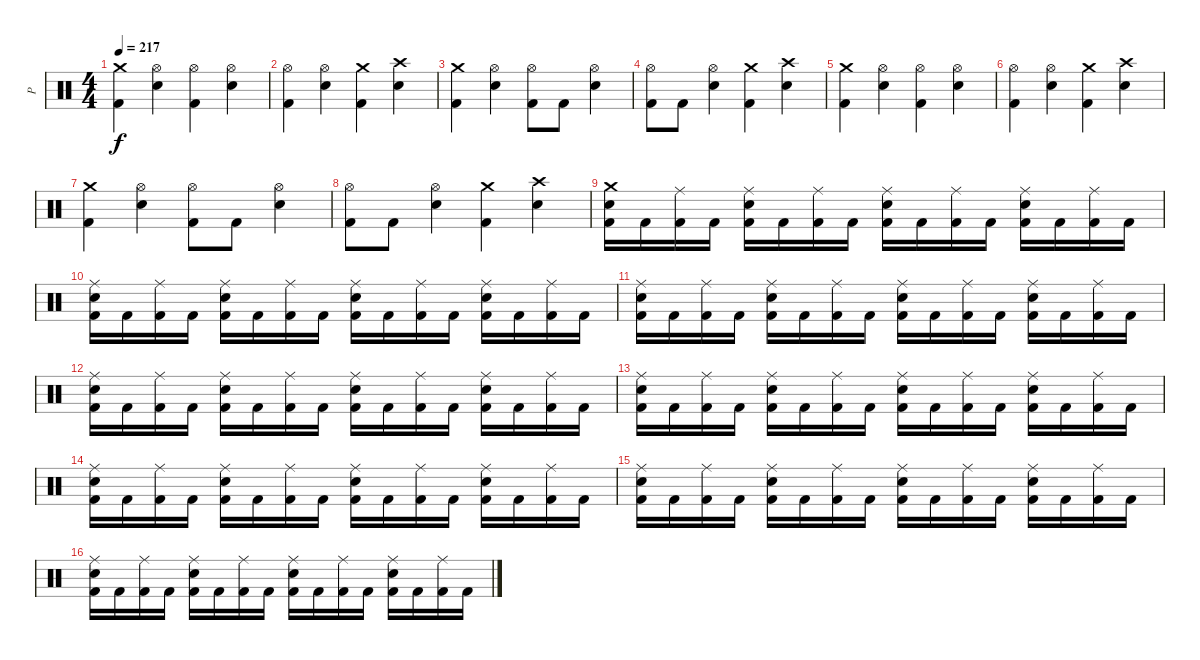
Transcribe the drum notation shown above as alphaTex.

\track ("P" "P") {instrument percussion}
\staff {score}
\articulation defaults
\ts (4 4)
\tempo 217
\clef neutral
\ks c
("Crash medium (hit)" "Kick (hit) 2").4{dy f} ("Hi-Hat (open)" "Electric Snare (hit)").4 ("Hi-Hat (open)" "Kick (hit) 2").4 ("Hi-Hat (open)" "Electric Snare (hit)").4 |
("Hi-Hat (open)" "Kick (hit) 2").4 ("Hi-Hat (open)" "Electric Snare (hit)").4 ("Crash medium (hit)" "Kick (hit) 2").4 ("Crash high (hit)" "Electric Snare (hit)").4 |
("Crash medium (hit)" "Kick (hit) 2").4 ("Hi-Hat (open)" "Electric Snare (hit)").4 ("Hi-Hat (open)" "Kick (hit) 2").8 "Kick (hit) 2".8 ("Hi-Hat (open)" "Electric Snare (hit)").4 |
("Hi-Hat (open)" "Kick (hit) 2").8 "Kick (hit) 2".8 ("Hi-Hat (open)" "Electric Snare (hit)").4 ("Crash medium (hit)" "Kick (hit) 2").4 ("Crash high (hit)" "Electric Snare (hit)").4 |
("Crash medium (hit)" "Kick (hit) 2").4 ("Hi-Hat (open)" "Electric Snare (hit)").4 ("Hi-Hat (open)" "Kick (hit) 2").4 ("Hi-Hat (open)" "Electric Snare (hit)").4 |
("Hi-Hat (open)" "Kick (hit) 2").4 ("Hi-Hat (open)" "Electric Snare (hit)").4 ("Crash medium (hit)" "Kick (hit) 2").4 ("Crash high (hit)" "Electric Snare (hit)").4 |
("Crash medium (hit)" "Kick (hit) 2").4 ("Hi-Hat (open)" "Electric Snare (hit)").4 ("Hi-Hat (open)" "Kick (hit) 2").8 "Kick (hit) 2".8 ("Hi-Hat (open)" "Electric Snare (hit)").4 |
("Hi-Hat (open)" "Kick (hit) 2").8 "Kick (hit) 2".8 ("Hi-Hat (open)" "Electric Snare (hit)").4 ("Crash medium (hit)" "Kick (hit) 2").4 ("Crash high (hit)" "Electric Snare (hit)").4 |
("Crash medium (hit)" "Electric Snare (hit)" "Kick (hit) 2").16 "Kick (hit) 2".16 ("Ride (middle)" "Kick (hit) 2").16 "Kick (hit) 2".16 ("Ride (middle)" "Electric Snare (hit)" "Kick (hit) 2").16 "Kick (hit) 2".16 ("Ride (middle)" "Kick (hit) 2").16 "Kick (hit) 2".16 ("Ride (middle)" "Electric Snare (hit)" "Kick (hit) 2").16 "Kick (hit) 2".16 ("Ride (middle)" "Kick (hit) 2").16 "Kick (hit) 2".16 ("Ride (middle)" "Electric Snare (hit)" "Kick (hit) 2").16 "Kick (hit) 2".16 ("Ride (middle)" "Kick (hit) 2").16 "Kick (hit) 2".16 |
("Ride (middle)" "Electric Snare (hit)" "Kick (hit) 2").16 "Kick (hit) 2".16 ("Ride (middle)" "Kick (hit) 2").16 "Kick (hit) 2".16 ("Ride (middle)" "Electric Snare (hit)" "Kick (hit) 2").16 "Kick (hit) 2".16 ("Ride (middle)" "Kick (hit) 2").16 "Kick (hit) 2".16 ("Ride (middle)" "Electric Snare (hit)" "Kick (hit) 2").16 "Kick (hit) 2".16 ("Ride (middle)" "Kick (hit) 2").16 "Kick (hit) 2".16 ("Ride (middle)" "Electric Snare (hit)" "Kick (hit) 2").16 "Kick (hit) 2".16 ("Ride (middle)" "Kick (hit) 2").16 "Kick (hit) 2".16 |
("Ride (middle)" "Electric Snare (hit)" "Kick (hit) 2").16 "Kick (hit) 2".16 ("Ride (middle)" "Kick (hit) 2").16 "Kick (hit) 2".16 ("Ride (middle)" "Electric Snare (hit)" "Kick (hit) 2").16 "Kick (hit) 2".16 ("Ride (middle)" "Kick (hit) 2").16 "Kick (hit) 2".16 ("Ride (middle)" "Electric Snare (hit)" "Kick (hit) 2").16 "Kick (hit) 2".16 ("Ride (middle)" "Kick (hit) 2").16 "Kick (hit) 2".16 ("Ride (middle)" "Electric Snare (hit)" "Kick (hit) 2").16 "Kick (hit) 2".16 ("Ride (middle)" "Kick (hit) 2").16 "Kick (hit) 2".16 |
("Ride (middle)" "Electric Snare (hit)" "Kick (hit) 2").16 "Kick (hit) 2".16 ("Ride (middle)" "Kick (hit) 2").16 "Kick (hit) 2".16 ("Ride (middle)" "Electric Snare (hit)" "Kick (hit) 2").16 "Kick (hit) 2".16 ("Ride (middle)" "Kick (hit) 2").16 "Kick (hit) 2".16 ("Ride (middle)" "Electric Snare (hit)" "Kick (hit) 2").16 "Kick (hit) 2".16 ("Ride (middle)" "Kick (hit) 2").16 "Kick (hit) 2".16 ("Ride (middle)" "Electric Snare (hit)" "Kick (hit) 2").16 "Kick (hit) 2".16 ("Ride (middle)" "Kick (hit) 2").16 "Kick (hit) 2".16 |
("Ride (middle)" "Electric Snare (hit)" "Kick (hit) 2").16 "Kick (hit) 2".16 ("Ride (middle)" "Kick (hit) 2").16 "Kick (hit) 2".16 ("Ride (middle)" "Electric Snare (hit)" "Kick (hit) 2").16 "Kick (hit) 2".16 ("Ride (middle)" "Kick (hit) 2").16 "Kick (hit) 2".16 ("Ride (middle)" "Electric Snare (hit)" "Kick (hit) 2").16 "Kick (hit) 2".16 ("Ride (middle)" "Kick (hit) 2").16 "Kick (hit) 2".16 ("Ride (middle)" "Electric Snare (hit)" "Kick (hit) 2").16 "Kick (hit) 2".16 ("Ride (middle)" "Kick (hit) 2").16 "Kick (hit) 2".16 |
("Ride (middle)" "Electric Snare (hit)" "Kick (hit) 2").16 "Kick (hit) 2".16 ("Ride (middle)" "Kick (hit) 2").16 "Kick (hit) 2".16 ("Ride (middle)" "Electric Snare (hit)" "Kick (hit) 2").16 "Kick (hit) 2".16 ("Ride (middle)" "Kick (hit) 2").16 "Kick (hit) 2".16 ("Ride (middle)" "Electric Snare (hit)" "Kick (hit) 2").16 "Kick (hit) 2".16 ("Ride (middle)" "Kick (hit) 2").16 "Kick (hit) 2".16 ("Ride (middle)" "Electric Snare (hit)" "Kick (hit) 2").16 "Kick (hit) 2".16 ("Ride (middle)" "Kick (hit) 2").16 "Kick (hit) 2".16 |
("Ride (middle)" "Electric Snare (hit)" "Kick (hit) 2").16 "Kick (hit) 2".16 ("Ride (middle)" "Kick (hit) 2").16 "Kick (hit) 2".16 ("Ride (middle)" "Electric Snare (hit)" "Kick (hit) 2").16 "Kick (hit) 2".16 ("Ride (middle)" "Kick (hit) 2").16 "Kick (hit) 2".16 ("Ride (middle)" "Electric Snare (hit)" "Kick (hit) 2").16 "Kick (hit) 2".16 ("Ride (middle)" "Kick (hit) 2").16 "Kick (hit) 2".16 ("Ride (middle)" "Electric Snare (hit)" "Kick (hit) 2").16 "Kick (hit) 2".16 ("Ride (middle)" "Kick (hit) 2").16 "Kick (hit) 2".16 |
("Ride (middle)" "Electric Snare (hit)" "Kick (hit) 2").16 "Kick (hit) 2".16 ("Ride (middle)" "Kick (hit) 2").16 "Kick (hit) 2".16 ("Ride (middle)" "Electric Snare (hit)" "Kick (hit) 2").16 "Kick (hit) 2".16 ("Ride (middle)" "Kick (hit) 2").16 "Kick (hit) 2".16 ("Ride (middle)" "Electric Snare (hit)" "Kick (hit) 2").16 "Kick (hit) 2".16 ("Ride (middle)" "Kick (hit) 2").16 "Kick (hit) 2".16 ("Ride (middle)" "Electric Snare (hit)" "Kick (hit) 2").16 "Kick (hit) 2".16 ("Ride (middle)" "Kick (hit) 2").16 "Kick (hit) 2".16
